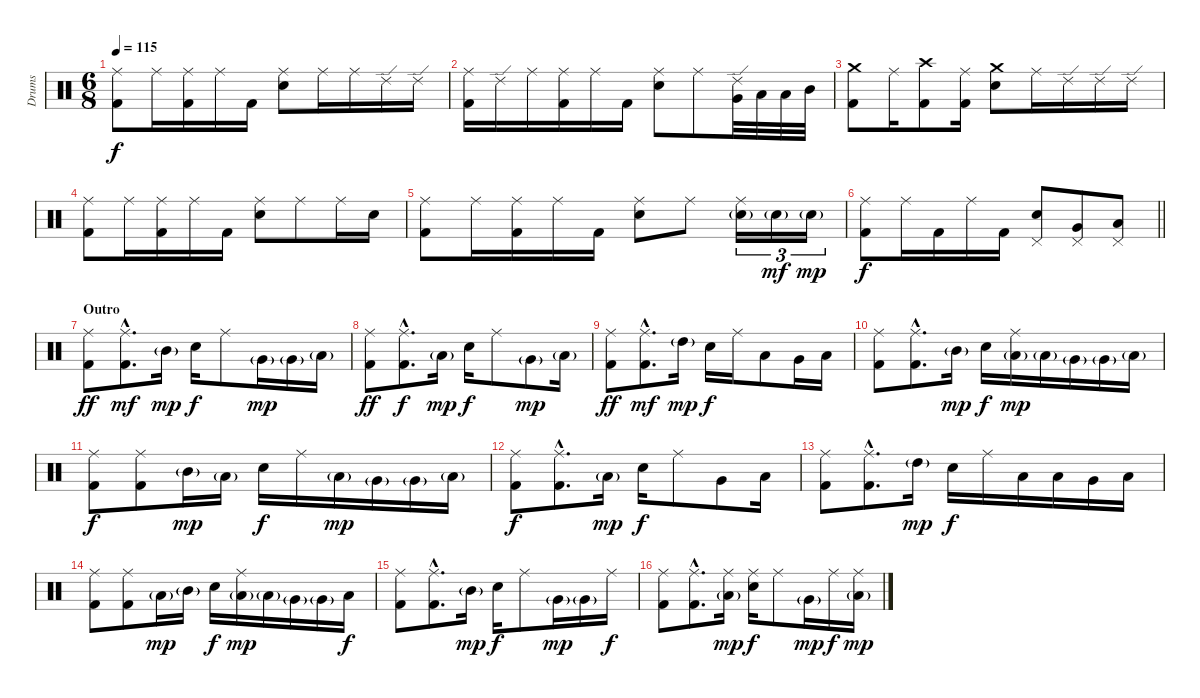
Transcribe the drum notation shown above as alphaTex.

\track ("Drums" "Drums") {instrument percussion}
\staff {score}
\articulation defaults
\ts (6 8)
\tempo 115
\clef neutral
\ks c
("Ride (middle)" "Kick (hit) 2").8{dy f} "Ride (middle)".16 ("Ride (middle)" "Kick (hit) 2").16 "Ride (middle)".16 "Kick (hit) 2".16 ("Ride (middle)" "Electric Snare (hit)").8 "Ride (middle)".16 "Ride (middle)".16 "Ride (edge) 2".16 "Ride (edge) 2".16 |
("Ride (middle)" "Kick (hit) 2").16 "Ride (edge) 2".16 "Ride (middle)".16 ("Ride (middle)" "Kick (hit) 2").16 "Ride (middle)".16 "Kick (hit) 2".16 ("Ride (middle)" "Electric Snare (hit)").8 "Ride (middle)".8 ("Ride (edge) 2" "Very Low Tom (hit)").32 "Low Tom (hit)".32 "Low Tom (hit)".32 "Mid Tom (hit)".32 |
("Crash medium (hit)" "Kick (hit) 2").8 "Ride (middle)".16 ("Crash high (hit)" "Kick (hit) 2").8 ("Ride (middle)" "Kick (hit) 2").16 ("Crash medium (hit)" "Electric Snare (hit)").8 "Ride (middle)".16 "Ride (edge) 2".16 "Ride (edge) 2".16 "Ride (edge) 2".16 |
("Ride (middle)" "Kick (hit) 2").8 "Ride (middle)".16 ("Ride (middle)" "Kick (hit) 2").16 "Ride (middle)".16 "Kick (hit) 2".16 ("Ride (middle)" "Electric Snare (hit)").8 "Ride (middle)".8 "Ride (middle)".16 "Electric Snare (hit)".16 |
("Ride (middle)" "Kick (hit) 2").8 "Ride (middle)".16 ("Ride (middle)" "Kick (hit) 2").16 "Ride (middle)".16 "Kick (hit) 2".16 ("Ride (middle)" "Electric Snare (hit)").8 "Ride (middle)".8 ("Ride (middle)" "Electric Snare (hit)"{g}).16{tu (3 2)} "Electric Snare (hit)"{g}.16{tu (3 2) dy mf} "Electric Snare (hit)"{g}.16{tu (3 2) dy mp} |
\barLineRight lightlight
("Ride (middle)" "Kick (hit) 2").8{dy f} "Ride (middle)".16 "Kick (hit) 2".16 "Ride (middle)".16 "Kick (hit) 2".16 ("Pedal Hi-Hat (hit)" "Electric Snare (hit)").8 ("Pedal Hi-Hat (hit)" "Very Low Tom (hit)").8 ("Pedal Hi-Hat (hit)" "Low Tom (hit)").8 |
\section ("" "Outro")
("Ride (middle)" "Kick (hit) 2").8{dy ff} ("Ride (middle)"{hac} "Kick (hit) 2"{hac}).8{d dy mf} "Mid Tom (hit)"{g}.16{dy mp} "Electric Snare (hit)".16{dy f} "Ride (middle)".8 "Very Low Tom (hit)"{g}.16{dy mp} "Very Low Tom (hit)"{g}.16 "Low Floor Tom (hit)"{g}.16 |
("Ride (middle)" "Kick (hit) 2").8{dy ff} ("Ride (middle)"{hac} "Kick (hit) 2"{hac}).8{d dy f} "Low Tom (hit)"{g}.16{dy mp} "Electric Snare (hit)".16{dy f} "Ride (middle)".8 "Very Low Tom (hit)"{g}.8{dy mp} "Low Floor Tom (hit)"{g}.16 |
("Ride (middle)" "Kick (hit) 2").8{dy ff} ("Ride (middle)"{hac} "Kick (hit) 2"{hac}).8{d dy mf} "High Tom (hit)"{g}.16{dy mp} "Electric Snare (hit)".16{dy f} "Ride (middle)".16 "Low Tom (hit)".8 "Very Low Tom (hit)".16 "Low Floor Tom (hit)".16 |
("Ride (middle)" "Kick (hit) 2").8 ("Ride (middle)"{hac} "Kick (hit) 2"{hac}).8{d} "Mid Tom (hit)"{g}.16{dy mp} "Electric Snare (hit)".16{dy f} ("Ride (middle)" "Low Tom (hit)"{g}).16{dy mp} "Low Tom (hit)"{g}.16 "Very Low Tom (hit)"{g}.16 "Very Low Tom (hit)"{g}.16 "Low Floor Tom (hit)"{g}.16 |
("Ride (middle)" "Kick (hit) 2").8{dy f} ("Ride (middle)" "Kick (hit) 2").8 "Mid Tom (hit)"{g}.16{dy mp} "Low Tom (hit)"{g}.16 "Electric Snare (hit)".16{dy f} "Ride (middle)".16 "Low Tom (hit)"{g}.16{dy mp} "Very Low Tom (hit)"{g}.16 "Very Low Tom (hit)"{g}.16 "Low Floor Tom (hit)"{g}.16 |
("Ride (middle)" "Kick (hit) 2").8{dy f} ("Ride (middle)"{hac} "Kick (hit) 2"{hac}).8{d} "Low Tom (hit)"{g}.16{dy mp} "Electric Snare (hit)".16{dy f} "Ride (middle)".8 "Very Low Tom (hit)".8 "Low Floor Tom (hit)".16 |
("Ride (middle)" "Kick (hit) 2").8 ("Ride (middle)"{hac} "Kick (hit) 2"{hac}).8{d} "High Tom (hit)"{g}.16{dy mp} "Electric Snare (hit)".16{dy f} "Ride (middle)".16 "Low Tom (hit)".16 "Low Tom (hit)".16 "Very Low Tom (hit)".16 "Low Floor Tom (hit)".16 |
("Ride (middle)" "Kick (hit) 2").8 ("Ride (middle)" "Kick (hit) 2").8 "Low Tom (hit)"{g}.16{dy mp} "Mid Tom (hit)"{g}.16 "Electric Snare (hit)".16{dy f} ("Ride (middle)" "Low Tom (hit)"{g}).16{dy mp} "Low Tom (hit)"{g}.16 "Very Low Tom (hit)"{g}.16 "Very Low Tom (hit)"{g}.16 "Low Floor Tom (hit)".16{dy f} |
("Ride (middle)" "Kick (hit) 2").8 ("Ride (middle)"{hac} "Kick (hit) 2"{hac}).8{d} "Mid Tom (hit)"{g}.16{dy mp} "Electric Snare (hit)".16{dy f} "Ride (middle)".8 "Very Low Tom (hit)"{g}.16{dy mp} "Very Low Tom (hit)"{g}.16 "Ride (middle)".16{dy f} |
("Ride (middle)" "Kick (hit) 2").8 ("Ride (middle)"{hac} "Kick (hit) 2"{hac}).8{d} ("Ride (middle)" "Low Tom (hit)"{g}).16{dy mp} ("Ride (middle)" "Electric Snare (hit)").16{dy f} "Ride (middle)".8 "Very Low Tom (hit)"{g}.16{dy mp} "Ride (middle)".16{dy f} ("Ride (middle)" "Low Floor Tom (hit)"{g}).16{dy mp}
